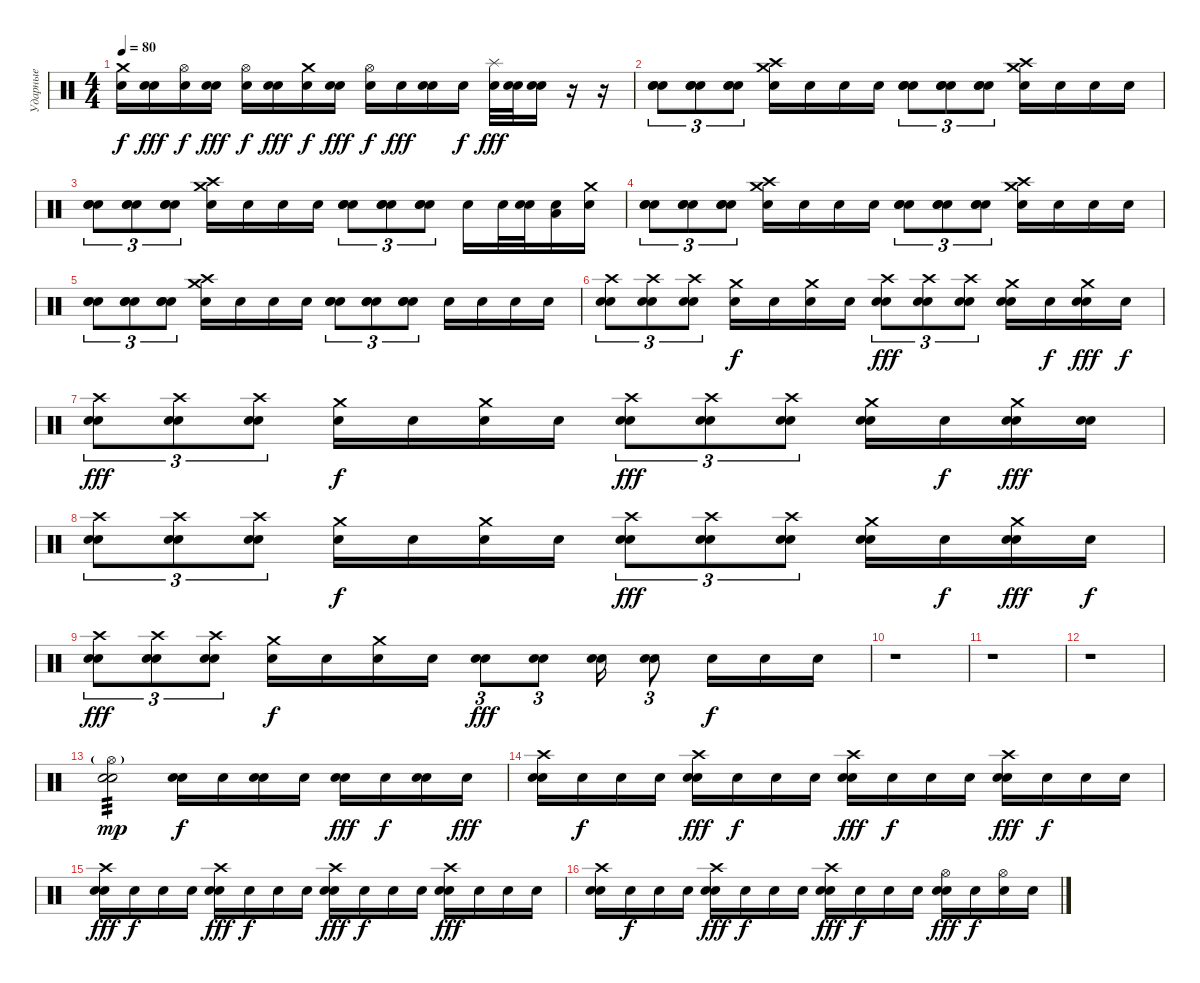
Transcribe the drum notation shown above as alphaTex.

\track ("Ударные" "Ударные") {instrument percussion}
\staff
\articulation defaults
\ts (4 4)
\tempo 80
\clef neutral
\ks c
("Crash medium (hit)" "Snare (hit)").16{dy f} ("Electric Snare (hit)" "Snare (hit)").16{dy fff} ("Hi-Hat (open)" "Snare (hit)").16{dy f} ("Electric Snare (hit)" "Snare (hit)").16{dy fff} ("Hi-Hat (open)" "Snare (hit)").16{dy f} ("Electric Snare (hit)" "Snare (hit)").16{dy fff} ("Crash medium (hit)" "Snare (hit)").16{dy f} ("Electric Snare (hit)" "Snare (hit)").16{dy fff} ("Hi-Hat (open)" "Snare (hit)").16{dy f} "Electric Snare (hit)".16{dy fff} ("Electric Snare (hit)" "Snare (hit)").16 "Snare (hit)".16{dy f} ("Splash (hit)" "Electric Snare (hit)").32{dy fff} ("Electric Snare (hit)" "Snare (hit)").32 ("Electric Snare (hit)" "Snare (hit)").16 r.16 r.16 |
("Snare (hit) 2" "Electric Snare (hit)" "Snare (hit)").8{tu (3 2)} ("Snare (hit) 2" "Electric Snare (hit)" "Snare (hit)").8{tu (3 2)} ("Snare (hit) 2" "Electric Snare (hit)" "Snare (hit)").8{tu (3 2)} ("Crash high (hit)" "Crash medium (hit)" "Snare (hit)").16 "Snare (hit)".16 "Snare (hit)".16 "Snare (hit)".16 ("Snare (hit) 2" "Electric Snare (hit)" "Snare (hit)").8{tu (3 2)} ("Snare (hit) 2" "Electric Snare (hit)" "Snare (hit)").8{tu (3 2)} ("Snare (hit) 2" "Electric Snare (hit)" "Snare (hit)").8{tu (3 2)} ("Crash high (hit)" "Crash medium (hit)" "Snare (hit)").16 "Snare (hit)".16 "Snare (hit)".16 "Snare (hit)".16 |
("Snare (hit) 2" "Electric Snare (hit)" "Snare (hit)").8{tu (3 2)} ("Snare (hit) 2" "Electric Snare (hit)" "Snare (hit)").8{tu (3 2)} ("Snare (hit) 2" "Electric Snare (hit)" "Snare (hit)").8{tu (3 2)} ("Crash high (hit)" "Crash medium (hit)" "Snare (hit)").16 "Snare (hit)".16 "Snare (hit)".16 "Snare (hit)".16 ("Snare (hit) 2" "Electric Snare (hit)" "Snare (hit)").8{tu (3 2)} ("Snare (hit) 2" "Electric Snare (hit)" "Snare (hit)").8{tu (3 2)} ("Snare (hit) 2" "Electric Snare (hit)" "Snare (hit)").8{tu (3 2)} "Snare (hit)".16 "Electric Snare (hit)".32 ("Electric Snare (hit)" "Snare (hit)").32 ("Low Tom (hit)" "Snare (hit)").16 ("Crash medium (hit)" "Snare (hit)").16 |
("Snare (hit) 2" "Electric Snare (hit)" "Snare (hit)").8{tu (3 2)} ("Snare (hit) 2" "Electric Snare (hit)" "Snare (hit)").8{tu (3 2)} ("Snare (hit) 2" "Electric Snare (hit)" "Snare (hit)").8{tu (3 2)} ("Crash high (hit)" "Crash medium (hit)" "Snare (hit)").16 "Snare (hit)".16 "Snare (hit)".16 "Snare (hit)".16 ("Snare (hit) 2" "Electric Snare (hit)" "Snare (hit)").8{tu (3 2)} ("Snare (hit) 2" "Electric Snare (hit)" "Snare (hit)").8{tu (3 2)} ("Snare (hit) 2" "Electric Snare (hit)" "Snare (hit)").8{tu (3 2)} ("Crash high (hit)" "Crash medium (hit)" "Snare (hit)").16 "Snare (hit)".16 "Snare (hit)".16 "Snare (hit)".16 |
("Snare (hit) 2" "Electric Snare (hit)" "Snare (hit)").8{tu (3 2)} ("Snare (hit) 2" "Electric Snare (hit)" "Snare (hit)").8{tu (3 2)} ("Snare (hit) 2" "Electric Snare (hit)" "Snare (hit)").8{tu (3 2)} ("Crash high (hit)" "Crash medium (hit)" "Snare (hit)").16 "Snare (hit)".16 "Snare (hit)".16 "Snare (hit)".16 ("Snare (hit) 2" "Electric Snare (hit)" "Snare (hit)").8{tu (3 2)} ("Snare (hit) 2" "Electric Snare (hit)" "Snare (hit)").8{tu (3 2)} ("Snare (hit) 2" "Electric Snare (hit)" "Snare (hit)").8{tu (3 2)} "Snare (hit)".16 "Snare (hit)".16 "Snare (hit)".16 "Snare (hit)".16 |
("Crash high (hit)" "Electric Snare (hit)" "Snare (hit)").8{tu (3 2)} ("Crash high (hit)" "Electric Snare (hit)" "Snare (hit)").8{tu (3 2)} ("Crash high (hit)" "Electric Snare (hit)" "Snare (hit)").8{tu (3 2)} ("Crash medium (hit)" "Snare (hit)").16{dy f} "Snare (hit)".16 ("Crash medium (hit)" "Snare (hit)").16 "Snare (hit)".16 ("Crash high (hit)" "Electric Snare (hit)" "Snare (hit)").8{tu (3 2) dy fff} ("Crash high (hit)" "Electric Snare (hit)" "Snare (hit)").8{tu (3 2)} ("Crash high (hit)" "Electric Snare (hit)" "Snare (hit)").8{tu (3 2)} ("Crash medium (hit)" "Electric Snare (hit)" "Snare (hit)").16 "Snare (hit)".16{dy f} ("Crash medium (hit)" "Electric Snare (hit)" "Snare (hit)").16{dy fff} "Snare (hit)".16{dy f} |
("Crash high (hit)" "Electric Snare (hit)" "Snare (hit)").8{tu (3 2) dy fff} ("Crash high (hit)" "Electric Snare (hit)" "Snare (hit)").8{tu (3 2)} ("Crash high (hit)" "Electric Snare (hit)" "Snare (hit)").8{tu (3 2)} ("Crash medium (hit)" "Snare (hit)").16{dy f} "Snare (hit)".16 ("Crash medium (hit)" "Snare (hit)").16 "Snare (hit)".16 ("Crash high (hit)" "Electric Snare (hit)" "Snare (hit)").8{tu (3 2) dy fff} ("Crash high (hit)" "Electric Snare (hit)" "Snare (hit)").8{tu (3 2)} ("Crash high (hit)" "Electric Snare (hit)" "Snare (hit)").8{tu (3 2)} ("Crash medium (hit)" "Electric Snare (hit)" "Snare (hit)").16 "Snare (hit)".16{dy f} ("Crash medium (hit)" "Electric Snare (hit)" "Snare (hit)").16{dy fff} ("Electric Snare (hit)" "Snare (hit)").16 |
("Crash high (hit)" "Electric Snare (hit)" "Snare (hit)").8{tu (3 2)} ("Crash high (hit)" "Electric Snare (hit)" "Snare (hit)").8{tu (3 2)} ("Crash high (hit)" "Electric Snare (hit)" "Snare (hit)").8{tu (3 2)} ("Crash medium (hit)" "Snare (hit)").16{dy f} "Snare (hit)".16 ("Crash medium (hit)" "Snare (hit)").16 "Snare (hit)".16 ("Crash high (hit)" "Electric Snare (hit)" "Snare (hit)").8{tu (3 2) dy fff} ("Crash high (hit)" "Electric Snare (hit)" "Snare (hit)").8{tu (3 2)} ("Crash high (hit)" "Electric Snare (hit)" "Snare (hit)").8{tu (3 2)} ("Crash medium (hit)" "Electric Snare (hit)" "Snare (hit)").16 "Snare (hit)".16{dy f} ("Crash medium (hit)" "Electric Snare (hit)" "Snare (hit)").16{dy fff} "Snare (hit)".16{dy f} |
("Crash high (hit)" "Electric Snare (hit)" "Snare (hit)").8{tu (3 2) dy fff} ("Crash high (hit)" "Electric Snare (hit)" "Snare (hit)").8{tu (3 2)} ("Crash high (hit)" "Electric Snare (hit)" "Snare (hit)").8{tu (3 2)} ("Crash medium (hit)" "Snare (hit)").16{dy f} "Snare (hit)".16 ("Crash medium (hit)" "Snare (hit)").16 "Snare (hit)".16 ("Electric Snare (hit)" "Snare (hit)").8{tu (3 2) dy fff} ("Electric Snare (hit)" "Snare (hit)").8{tu (3 2)} ("Electric Snare (hit)" "Snare (hit)").16 ("Electric Snare (hit)" "Snare (hit)").8{tu (3 2)} "Snare (hit)".16{dy f} "Snare (hit)".16 "Snare (hit)".16 |
r.1 |
r.1 |
r.1 |
("Hi-Hat (open)"{g} "Electric Snare (hit)" "Snare (hit)").2{tp 3 dy mp} ("Electric Snare (hit)" "Snare (hit)").16{dy f} "Snare (hit)".16 ("Electric Snare (hit)" "Snare (hit)").16 "Snare (hit)".16 ("Electric Snare (hit)" "Snare (hit)").16{dy fff} "Snare (hit)".16{dy f} ("Electric Snare (hit)" "Snare (hit)").16 "Snare (hit)".16{dy fff} |
("Crash high (hit)" "Electric Snare (hit)" "Snare (hit)").16 "Snare (hit)".16{dy f} "Snare (hit)".16 "Snare (hit)".16 ("Crash high (hit)" "Electric Snare (hit)" "Snare (hit)").16{dy fff} "Snare (hit)".16{dy f} "Snare (hit)".16 "Snare (hit)".16 ("Crash high (hit)" "Electric Snare (hit)" "Snare (hit)").16{dy fff} "Snare (hit)".16{dy f} "Snare (hit)".16 "Snare (hit)".16 ("Crash high (hit)" "Electric Snare (hit)" "Snare (hit)").16{dy fff} "Snare (hit)".16{dy f} "Snare (hit)".16 "Snare (hit)".16 |
("Crash high (hit)" "Electric Snare (hit)" "Snare (hit)").16{dy fff} "Snare (hit)".16{dy f} "Snare (hit)".16 "Snare (hit)".16 ("Crash high (hit)" "Electric Snare (hit)" "Snare (hit)").16{dy fff} "Snare (hit)".16{dy f} "Snare (hit)".16 "Snare (hit)".16 ("Crash high (hit)" "Electric Snare (hit)" "Snare (hit)").16{dy fff} "Snare (hit)".16{dy f} "Snare (hit)".16 "Snare (hit)".16 ("Crash high (hit)" "Electric Snare (hit)" "Snare (hit)").16{dy fff} "Snare (hit)".16 "Snare (hit)".16 "Snare (hit)".16 |
("Crash high (hit)" "Electric Snare (hit)" "Snare (hit)").16 "Snare (hit)".16{dy f} "Snare (hit)".16 "Snare (hit)".16 ("Crash high (hit)" "Electric Snare (hit)" "Snare (hit)").16{dy fff} "Snare (hit)".16{dy f} "Snare (hit)".16 "Snare (hit)".16 ("Crash high (hit)" "Electric Snare (hit)" "Snare (hit)").16{dy fff} "Snare (hit)".16{dy f} "Snare (hit)".16 "Snare (hit)".16 ("Hi-Hat (open)" "Electric Snare (hit)" "Snare (hit)").16{dy fff} "Snare (hit)".16{dy f} ("Hi-Hat (open)" "Snare (hit)").16 "Snare (hit)".16
